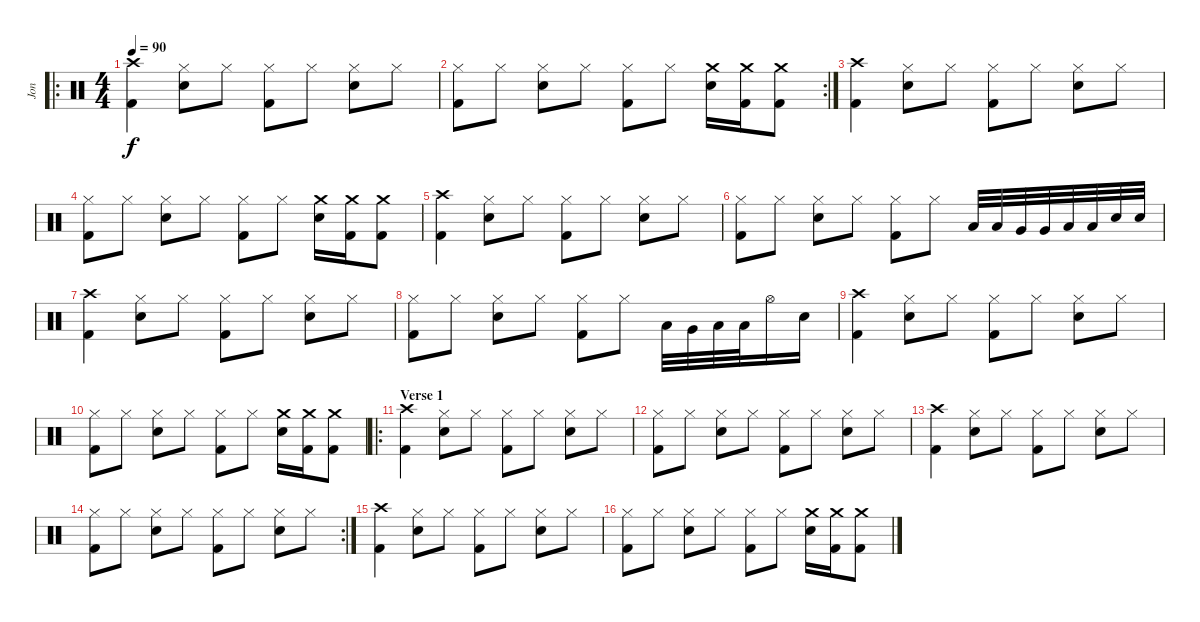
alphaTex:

\track ("Jon" "Jon") {instrument percussion}
\staff {score}
\articulation defaults
\ro
\ts (4 4)
\tempo 90
\clef neutral
\ks c
("Crash high (hit)" "Kick (hit) 2").4{dy f} ("Hi-Hat (closed)" "Snare (hit) 2").8 "Hi-Hat (closed)".8 ("Hi-Hat (closed)" "Kick (hit) 2").8 "Hi-Hat (closed)".8 ("Hi-Hat (closed)" "Snare (hit) 2").8 "Hi-Hat (closed)".8 |
\rc 2
("Hi-Hat (closed)" "Kick (hit) 2").8 "Hi-Hat (closed)".8 ("Hi-Hat (closed)" "Snare (hit) 2").8 "Hi-Hat (closed)".8 ("Hi-Hat (closed)" "Kick (hit) 2").8 "Hi-Hat (closed)".8 ("Crash medium (hit)" "Snare (hit) 2").16 ("Crash medium (hit)" "Kick (hit) 2").16 ("Crash medium (hit)" "Kick (hit) 2").8 |
("Crash high (hit)" "Kick (hit) 2").4 ("Hi-Hat (closed)" "Snare (hit) 2").8 "Hi-Hat (closed)".8 ("Hi-Hat (closed)" "Kick (hit) 2").8 "Hi-Hat (closed)".8 ("Hi-Hat (closed)" "Snare (hit) 2").8 "Hi-Hat (closed)".8 |
("Hi-Hat (closed)" "Kick (hit) 2").8 "Hi-Hat (closed)".8 ("Hi-Hat (closed)" "Snare (hit) 2").8 "Hi-Hat (closed)".8 ("Hi-Hat (closed)" "Kick (hit) 2").8 "Hi-Hat (closed)".8 ("Crash medium (hit)" "Snare (hit) 2").16 ("Crash medium (hit)" "Kick (hit) 2").16 ("Crash medium (hit)" "Kick (hit) 2").8 |
("Crash high (hit)" "Kick (hit) 2").4 ("Hi-Hat (closed)" "Snare (hit) 2").8 "Hi-Hat (closed)".8 ("Hi-Hat (closed)" "Kick (hit) 2").8 "Hi-Hat (closed)".8 ("Hi-Hat (closed)" "Snare (hit) 2").8 "Hi-Hat (closed)".8 |
("Hi-Hat (closed)" "Kick (hit) 2").8 "Hi-Hat (closed)".8 ("Hi-Hat (closed)" "Snare (hit) 2").8 "Hi-Hat (closed)".8 ("Hi-Hat (closed)" "Kick (hit) 2").8 "Hi-Hat (closed)".8 "Low Tom (hit)".32 "Low Tom (hit)".32 "Very Low Tom (hit)".32 "Very Low Tom (hit)".32 "Low Floor Tom (hit)".32 "Low Floor Tom (hit)".32 "Snare (hit) 2".32 "Snare (hit) 2".32 |
("Crash high (hit)" "Kick (hit) 2").4 ("Hi-Hat (closed)" "Snare (hit) 2").8 "Hi-Hat (closed)".8 ("Hi-Hat (closed)" "Kick (hit) 2").8 "Hi-Hat (closed)".8 ("Hi-Hat (closed)" "Snare (hit) 2").8 "Hi-Hat (closed)".8 |
("Hi-Hat (closed)" "Kick (hit) 2").8 "Hi-Hat (closed)".8 ("Hi-Hat (closed)" "Snare (hit) 2").8 "Hi-Hat (closed)".8 ("Hi-Hat (closed)" "Kick (hit) 2").8 "Hi-Hat (closed)".8 "Low Tom (hit)".32 "Very Low Tom (hit)".32 "Low Tom (hit)".32 "Low Floor Tom (hit)".32 "Hi-Hat (open)".16 "Snare (hit) 2".16 |
("Crash high (hit)" "Kick (hit) 2").4 ("Hi-Hat (closed)" "Snare (hit) 2").8 "Hi-Hat (closed)".8 ("Hi-Hat (closed)" "Kick (hit) 2").8 "Hi-Hat (closed)".8 ("Hi-Hat (closed)" "Snare (hit) 2").8 "Hi-Hat (closed)".8 |
("Hi-Hat (closed)" "Kick (hit) 2").8 "Hi-Hat (closed)".8 ("Hi-Hat (closed)" "Snare (hit) 2").8 "Hi-Hat (closed)".8 ("Hi-Hat (closed)" "Kick (hit) 2").8 "Hi-Hat (closed)".8 ("Crash medium (hit)" "Snare (hit) 2").16 ("Crash medium (hit)" "Kick (hit) 2").16 ("Crash medium (hit)" "Kick (hit) 2").8 |
\ro
\section ("" "Verse 1")
("Crash high (hit)" "Kick (hit) 2").4 ("Hi-Hat (closed)" "Snare (hit) 2").8 "Hi-Hat (closed)".8 ("Hi-Hat (closed)" "Kick (hit) 2").8 "Hi-Hat (closed)".8 ("Hi-Hat (closed)" "Snare (hit) 2").8 "Hi-Hat (closed)".8 |
("Hi-Hat (closed)" "Kick (hit) 2").8 "Hi-Hat (closed)".8 ("Hi-Hat (closed)" "Snare (hit) 2").8 "Hi-Hat (closed)".8 ("Hi-Hat (closed)" "Kick (hit) 2").8 "Hi-Hat (closed)".8 ("Hi-Hat (closed)" "Snare (hit) 2").8 "Hi-Hat (closed)".8 |
("Crash high (hit)" "Kick (hit) 2").4 ("Hi-Hat (closed)" "Snare (hit) 2").8 "Hi-Hat (closed)".8 ("Hi-Hat (closed)" "Kick (hit) 2").8 "Hi-Hat (closed)".8 ("Hi-Hat (closed)" "Snare (hit) 2").8 "Hi-Hat (closed)".8 |
\rc 2
("Hi-Hat (closed)" "Kick (hit) 2").8 "Hi-Hat (closed)".8 ("Hi-Hat (closed)" "Snare (hit) 2").8 "Hi-Hat (closed)".8 ("Hi-Hat (closed)" "Kick (hit) 2").8 "Hi-Hat (closed)".8 ("Hi-Hat (closed)" "Snare (hit) 2").8 "Hi-Hat (closed)".8 |
("Crash high (hit)" "Kick (hit) 2").4 ("Hi-Hat (closed)" "Snare (hit) 2").8 "Hi-Hat (closed)".8 ("Hi-Hat (closed)" "Kick (hit) 2").8 "Hi-Hat (closed)".8 ("Hi-Hat (closed)" "Snare (hit) 2").8 "Hi-Hat (closed)".8 |
("Hi-Hat (closed)" "Kick (hit) 2").8 "Hi-Hat (closed)".8 ("Hi-Hat (closed)" "Snare (hit) 2").8 "Hi-Hat (closed)".8 ("Hi-Hat (closed)" "Kick (hit) 2").8 "Hi-Hat (closed)".8 ("Crash medium (hit)" "Snare (hit) 2").16 ("Crash medium (hit)" "Kick (hit) 2").16 ("Crash medium (hit)" "Kick (hit) 2").8
